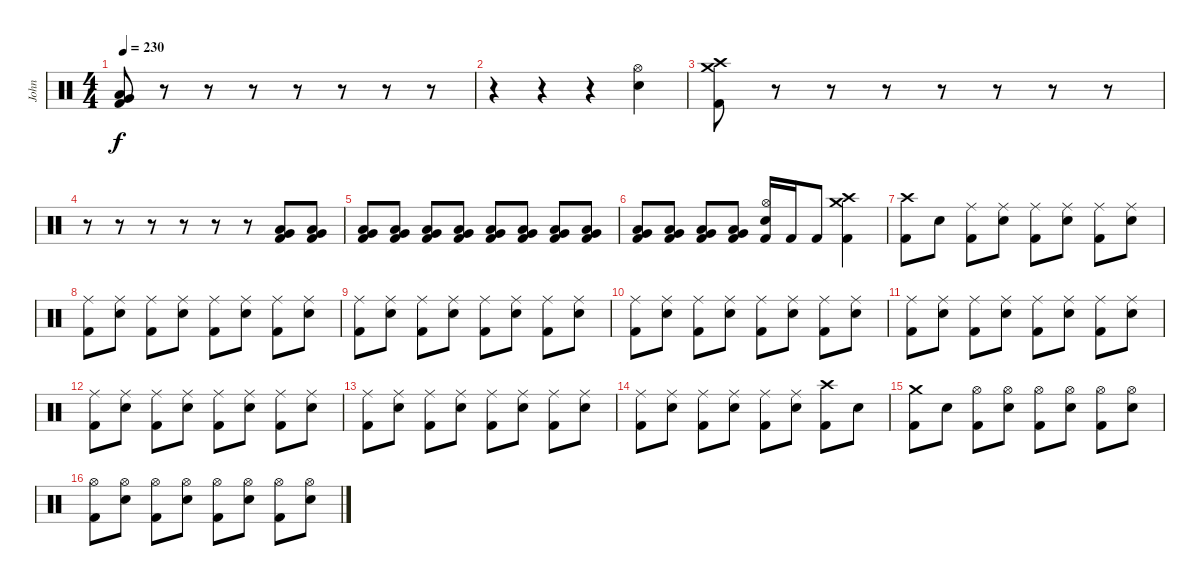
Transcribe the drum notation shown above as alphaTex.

\track ("John" "John") {instrument percussion}
\staff {score}
\articulation defaults
\ts (4 4)
\tempo 230
\clef neutral
\ks c
("Low Tom (hit)" "Very Low Tom (hit)" "Kick (hit) 2").8{dy f} r.8 r.8 r.8 r.8 r.8 r.8 r.8 |
r.4 r.4 r.4 ("Hi-Hat (open)" "Electric Snare (hit)").4 |
("Crash medium (hit)" "Crash high (hit)" "Kick (hit) 2").8 r.8 r.8 r.8 r.8 r.8 r.8 r.8 |
r.8 r.8 r.8 r.8 r.8 r.8 ("Low Tom (hit)" "Very Low Tom (hit)" "Kick (hit) 2").8 ("Low Tom (hit)" "Very Low Tom (hit)" "Kick (hit) 2").8 |
("Low Tom (hit)" "Very Low Tom (hit)" "Kick (hit) 2").8 ("Low Tom (hit)" "Very Low Tom (hit)" "Kick (hit) 2").8 ("Low Tom (hit)" "Very Low Tom (hit)" "Kick (hit) 2").8 ("Low Tom (hit)" "Very Low Tom (hit)" "Kick (hit) 2").8 ("Low Tom (hit)" "Very Low Tom (hit)" "Kick (hit) 2").8 ("Low Tom (hit)" "Very Low Tom (hit)" "Kick (hit) 2").8 ("Low Tom (hit)" "Very Low Tom (hit)" "Kick (hit) 2").8 ("Low Tom (hit)" "Very Low Tom (hit)" "Kick (hit) 2").8 |
("Low Tom (hit)" "Very Low Tom (hit)" "Kick (hit) 2").8 ("Low Tom (hit)" "Very Low Tom (hit)" "Kick (hit) 2").8 ("Low Tom (hit)" "Very Low Tom (hit)" "Kick (hit) 2").8 ("Low Tom (hit)" "Very Low Tom (hit)" "Kick (hit) 2").8 ("Hi-Hat (open)" "Electric Snare (hit)" "Kick (hit) 2").16 "Kick (hit) 2".16 "Kick (hit) 2".8 ("Crash medium (hit)" "Crash high (hit)" "Kick (hit) 2").4 |
("Crash high (hit)" "Kick (hit) 2").8 "Electric Snare (hit)".8 ("Ride (middle)" "Kick (hit) 2").8 ("Ride (middle)" "Electric Snare (hit)").8 ("Ride (middle)" "Kick (hit) 2").8 ("Ride (middle)" "Electric Snare (hit)").8 ("Ride (middle)" "Kick (hit) 2").8 ("Ride (middle)" "Electric Snare (hit)").8 |
("Ride (middle)" "Kick (hit) 2").8 ("Ride (middle)" "Electric Snare (hit)").8 ("Ride (middle)" "Kick (hit) 2").8 ("Ride (middle)" "Electric Snare (hit)").8 ("Ride (middle)" "Kick (hit) 2").8 ("Ride (middle)" "Electric Snare (hit)").8 ("Ride (middle)" "Kick (hit) 2").8 ("Ride (middle)" "Electric Snare (hit)").8 |
("Ride (middle)" "Kick (hit) 2").8 ("Ride (middle)" "Electric Snare (hit)").8 ("Ride (middle)" "Kick (hit) 2").8 ("Ride (middle)" "Electric Snare (hit)").8 ("Ride (middle)" "Kick (hit) 2").8 ("Ride (middle)" "Electric Snare (hit)").8 ("Ride (middle)" "Kick (hit) 2").8 ("Ride (middle)" "Electric Snare (hit)").8 |
("Ride (middle)" "Kick (hit) 2").8 ("Ride (middle)" "Electric Snare (hit)").8 ("Ride (middle)" "Kick (hit) 2").8 ("Ride (middle)" "Electric Snare (hit)").8 ("Ride (middle)" "Kick (hit) 2").8 ("Ride (middle)" "Electric Snare (hit)").8 ("Ride (middle)" "Kick (hit) 2").8 ("Ride (middle)" "Electric Snare (hit)").8 |
("Ride (middle)" "Kick (hit) 2").8 ("Ride (middle)" "Electric Snare (hit)").8 ("Ride (middle)" "Kick (hit) 2").8 ("Ride (middle)" "Electric Snare (hit)").8 ("Ride (middle)" "Kick (hit) 2").8 ("Ride (middle)" "Electric Snare (hit)").8 ("Ride (middle)" "Kick (hit) 2").8 ("Ride (middle)" "Electric Snare (hit)").8 |
("Ride (middle)" "Kick (hit) 2").8 ("Ride (middle)" "Electric Snare (hit)").8 ("Ride (middle)" "Kick (hit) 2").8 ("Ride (middle)" "Electric Snare (hit)").8 ("Ride (middle)" "Kick (hit) 2").8 ("Ride (middle)" "Electric Snare (hit)").8 ("Ride (middle)" "Kick (hit) 2").8 ("Ride (middle)" "Electric Snare (hit)").8 |
("Ride (middle)" "Kick (hit) 2").8 ("Ride (middle)" "Electric Snare (hit)").8 ("Ride (middle)" "Kick (hit) 2").8 ("Ride (middle)" "Electric Snare (hit)").8 ("Ride (middle)" "Kick (hit) 2").8 ("Ride (middle)" "Electric Snare (hit)").8 ("Ride (middle)" "Kick (hit) 2").8 ("Ride (middle)" "Electric Snare (hit)").8 |
("Ride (middle)" "Kick (hit) 2").8 ("Ride (middle)" "Electric Snare (hit)").8 ("Ride (middle)" "Kick (hit) 2").8 ("Ride (middle)" "Electric Snare (hit)").8 ("Ride (middle)" "Kick (hit) 2").8 ("Ride (middle)" "Electric Snare (hit)").8 ("Crash high (hit)" "Kick (hit) 2").8 "Electric Snare (hit)".8 |
("Crash medium (hit)" "Kick (hit) 2").8 "Electric Snare (hit)".8 ("Hi-Hat (open)" "Kick (hit) 2").8 ("Hi-Hat (open)" "Electric Snare (hit)").8 ("Hi-Hat (open)" "Kick (hit) 2").8 ("Hi-Hat (open)" "Electric Snare (hit)").8 ("Hi-Hat (open)" "Kick (hit) 2").8 ("Hi-Hat (open)" "Electric Snare (hit)").8 |
("Hi-Hat (open)" "Kick (hit) 2").8 ("Hi-Hat (open)" "Electric Snare (hit)").8 ("Hi-Hat (open)" "Kick (hit) 2").8 ("Hi-Hat (open)" "Electric Snare (hit)").8 ("Hi-Hat (open)" "Kick (hit) 2").8 ("Hi-Hat (open)" "Electric Snare (hit)").8 ("Hi-Hat (open)" "Kick (hit) 2").8 ("Hi-Hat (open)" "Electric Snare (hit)").8
